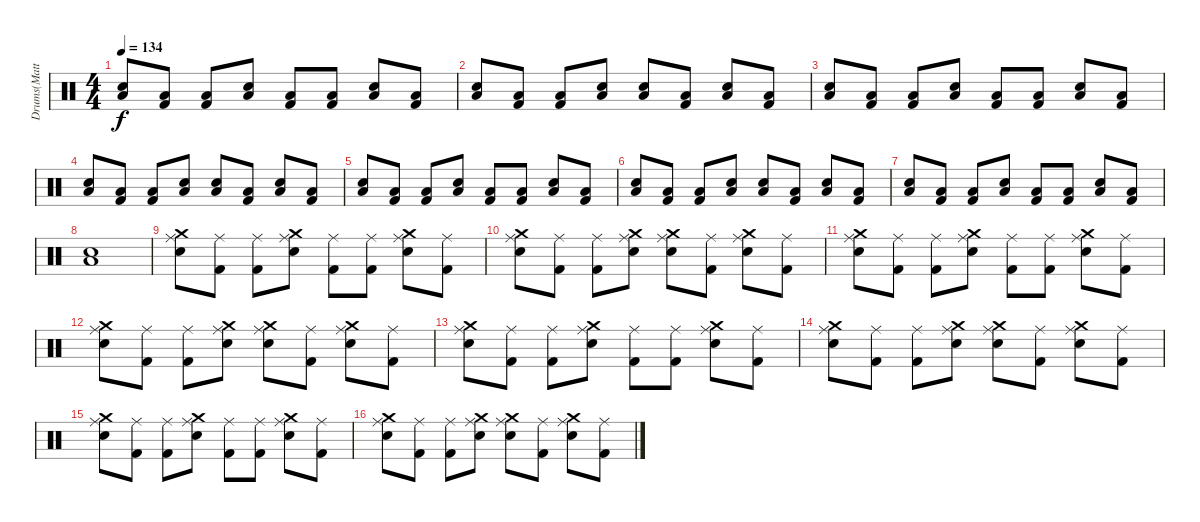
\track ("Drums(Matthias)" "Drums(Matt") {instrument percussion}
\staff {score}
\articulation defaults
\ts (4 4)
\tempo 134
\clef neutral
\ks c
("Low Tom (hit)" "Snare (hit) 2").8{dy f} ("Low Tom (hit)" "Kick (hit) 2").8 ("Low Tom (hit)" "Kick (hit) 2").8 ("Low Tom (hit)" "Snare (hit) 2").8 ("Low Tom (hit)" "Kick (hit) 2").8 ("Low Tom (hit)" "Kick (hit) 2").8 ("Low Tom (hit)" "Snare (hit) 2").8 ("Low Tom (hit)" "Kick (hit) 2").8 |
("Low Tom (hit)" "Snare (hit) 2").8 ("Low Tom (hit)" "Kick (hit) 2").8 ("Low Tom (hit)" "Kick (hit) 2").8 ("Low Tom (hit)" "Snare (hit) 2").8 ("Low Tom (hit)" "Snare (hit) 2").8 ("Low Tom (hit)" "Kick (hit) 2").8 ("Low Tom (hit)" "Snare (hit) 2").8 ("Low Tom (hit)" "Kick (hit) 2").8 |
("Low Tom (hit)" "Snare (hit) 2").8 ("Low Tom (hit)" "Kick (hit) 2").8 ("Low Tom (hit)" "Kick (hit) 2").8 ("Low Tom (hit)" "Snare (hit) 2").8 ("Low Tom (hit)" "Kick (hit) 2").8 ("Low Tom (hit)" "Kick (hit) 2").8 ("Low Tom (hit)" "Snare (hit) 2").8 ("Low Tom (hit)" "Kick (hit) 2").8 |
("Low Tom (hit)" "Snare (hit) 2").8 ("Low Tom (hit)" "Kick (hit) 2").8 ("Low Tom (hit)" "Kick (hit) 2").8 ("Low Tom (hit)" "Snare (hit) 2").8 ("Low Tom (hit)" "Snare (hit) 2").8 ("Low Tom (hit)" "Kick (hit) 2").8 ("Low Tom (hit)" "Snare (hit) 2").8 ("Low Tom (hit)" "Kick (hit) 2").8 |
("Low Tom (hit)" "Snare (hit) 2").8 ("Low Tom (hit)" "Kick (hit) 2").8 ("Low Tom (hit)" "Kick (hit) 2").8 ("Low Tom (hit)" "Snare (hit) 2").8 ("Low Tom (hit)" "Kick (hit) 2").8 ("Low Tom (hit)" "Kick (hit) 2").8 ("Low Tom (hit)" "Snare (hit) 2").8 ("Low Tom (hit)" "Kick (hit) 2").8 |
("Low Tom (hit)" "Snare (hit) 2").8 ("Low Tom (hit)" "Kick (hit) 2").8 ("Low Tom (hit)" "Kick (hit) 2").8 ("Low Tom (hit)" "Snare (hit) 2").8 ("Low Tom (hit)" "Snare (hit) 2").8 ("Low Tom (hit)" "Kick (hit) 2").8 ("Low Tom (hit)" "Snare (hit) 2").8 ("Low Tom (hit)" "Kick (hit) 2").8 |
("Low Tom (hit)" "Snare (hit) 2").8 ("Low Tom (hit)" "Kick (hit) 2").8 ("Low Tom (hit)" "Kick (hit) 2").8 ("Low Tom (hit)" "Snare (hit) 2").8 ("Low Tom (hit)" "Kick (hit) 2").8 ("Low Tom (hit)" "Kick (hit) 2").8 ("Low Tom (hit)" "Snare (hit) 2").8 ("Low Tom (hit)" "Kick (hit) 2").8 |
("Low Tom (hit)" "Snare (hit) 2").1 |
("Ride (middle)" "Crash medium (hit)" "Snare (hit) 2").8{volume 13} ("Ride (middle)" "Kick (hit) 2").8 ("Ride (middle)" "Kick (hit) 2").8 ("Ride (middle)" "Crash medium (hit)" "Snare (hit) 2").8 ("Ride (middle)" "Kick (hit) 2").8 ("Ride (middle)" "Kick (hit) 2").8 ("Ride (middle)" "Crash medium (hit)" "Snare (hit) 2").8 ("Ride (middle)" "Kick (hit) 2").8 |
("Ride (middle)" "Crash medium (hit)" "Snare (hit) 2").8 ("Ride (middle)" "Kick (hit) 2").8 ("Ride (middle)" "Kick (hit) 2").8 ("Ride (middle)" "Crash medium (hit)" "Snare (hit) 2").8 ("Ride (middle)" "Crash medium (hit)" "Snare (hit) 2").8 ("Ride (middle)" "Kick (hit) 2").8 ("Ride (middle)" "Crash medium (hit)" "Snare (hit) 2").8 ("Ride (middle)" "Kick (hit) 2").8 |
("Ride (middle)" "Crash medium (hit)" "Snare (hit) 2").8 ("Ride (middle)" "Kick (hit) 2").8 ("Ride (middle)" "Kick (hit) 2").8 ("Ride (middle)" "Crash medium (hit)" "Snare (hit) 2").8 ("Ride (middle)" "Kick (hit) 2").8 ("Ride (middle)" "Kick (hit) 2").8 ("Ride (middle)" "Crash medium (hit)" "Snare (hit) 2").8 ("Ride (middle)" "Kick (hit) 2").8 |
("Ride (middle)" "Crash medium (hit)" "Snare (hit) 2").8 ("Ride (middle)" "Kick (hit) 2").8 ("Ride (middle)" "Kick (hit) 2").8 ("Ride (middle)" "Crash medium (hit)" "Snare (hit) 2").8 ("Ride (middle)" "Crash medium (hit)" "Snare (hit) 2").8 ("Ride (middle)" "Kick (hit) 2").8 ("Ride (middle)" "Crash medium (hit)" "Snare (hit) 2").8 ("Ride (middle)" "Kick (hit) 2").8 |
("Ride (middle)" "Crash medium (hit)" "Snare (hit) 2").8 ("Ride (middle)" "Kick (hit) 2").8 ("Ride (middle)" "Kick (hit) 2").8 ("Ride (middle)" "Crash medium (hit)" "Snare (hit) 2").8 ("Ride (middle)" "Kick (hit) 2").8 ("Ride (middle)" "Kick (hit) 2").8 ("Ride (middle)" "Crash medium (hit)" "Snare (hit) 2").8 ("Ride (middle)" "Kick (hit) 2").8 |
("Ride (middle)" "Crash medium (hit)" "Snare (hit) 2").8 ("Ride (middle)" "Kick (hit) 2").8 ("Ride (middle)" "Kick (hit) 2").8 ("Ride (middle)" "Crash medium (hit)" "Snare (hit) 2").8 ("Ride (middle)" "Crash medium (hit)" "Snare (hit) 2").8 ("Ride (middle)" "Kick (hit) 2").8 ("Ride (middle)" "Crash medium (hit)" "Snare (hit) 2").8 ("Ride (middle)" "Kick (hit) 2").8 |
("Ride (middle)" "Crash medium (hit)" "Snare (hit) 2").8 ("Ride (middle)" "Kick (hit) 2").8 ("Ride (middle)" "Kick (hit) 2").8 ("Ride (middle)" "Crash medium (hit)" "Snare (hit) 2").8 ("Ride (middle)" "Kick (hit) 2").8 ("Ride (middle)" "Kick (hit) 2").8 ("Ride (middle)" "Crash medium (hit)" "Snare (hit) 2").8 ("Ride (middle)" "Kick (hit) 2").8 |
("Ride (middle)" "Crash medium (hit)" "Snare (hit) 2").8 ("Ride (middle)" "Kick (hit) 2").8 ("Ride (middle)" "Kick (hit) 2").8 ("Ride (middle)" "Crash medium (hit)" "Snare (hit) 2").8 ("Ride (middle)" "Crash medium (hit)" "Snare (hit) 2").8 ("Ride (middle)" "Kick (hit) 2").8 ("Ride (middle)" "Crash medium (hit)" "Snare (hit) 2").8 ("Ride (middle)" "Kick (hit) 2").8
